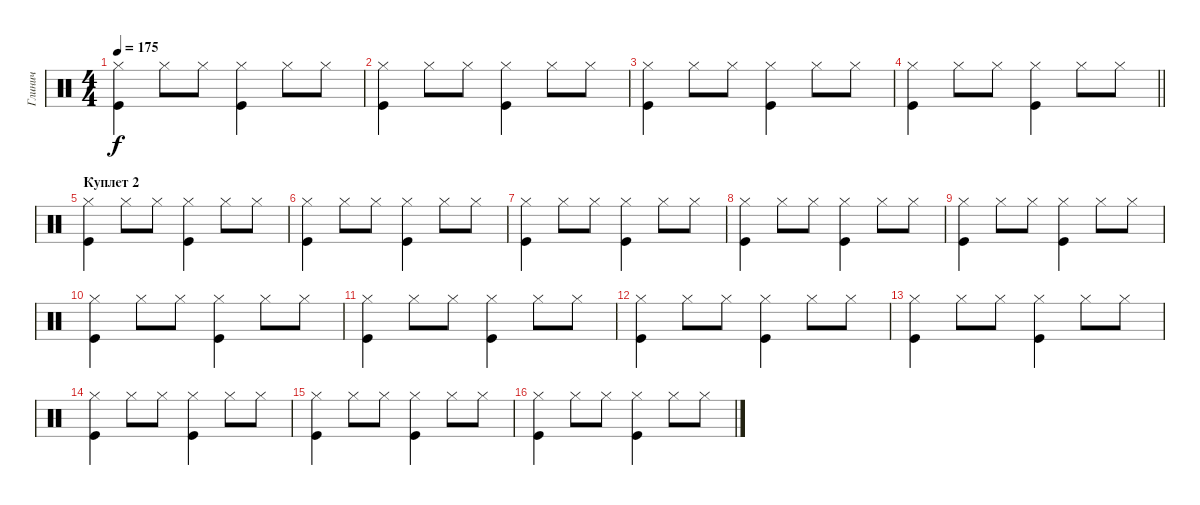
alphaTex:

\track ("Глинич" "Глинич") {instrument percussion}
\staff {score}
\articulation defaults
\ts (4 4)
\tempo 175
\clef neutral
\ks c
("Hi-Hat (closed)" "Kick (hit)").4{dy f} "Hi-Hat (closed)".8 "Hi-Hat (closed)".8 ("Hi-Hat (closed)" "Kick (hit)").4 "Hi-Hat (closed)".8 "Hi-Hat (closed)".8 |
("Hi-Hat (closed)" "Kick (hit)").4 "Hi-Hat (closed)".8 "Hi-Hat (closed)".8 ("Hi-Hat (closed)" "Kick (hit)").4 "Hi-Hat (closed)".8 "Hi-Hat (closed)".8 |
("Hi-Hat (closed)" "Kick (hit)").4 "Hi-Hat (closed)".8 "Hi-Hat (closed)".8 ("Hi-Hat (closed)" "Kick (hit)").4 "Hi-Hat (closed)".8 "Hi-Hat (closed)".8 |
\barLineRight lightlight
("Hi-Hat (closed)" "Kick (hit)").4 "Hi-Hat (closed)".8 "Hi-Hat (closed)".8 ("Hi-Hat (closed)" "Kick (hit)").4 "Hi-Hat (closed)".8 "Hi-Hat (closed)".8 |
\section ("" "Куплет 2")
("Hi-Hat (closed)" "Kick (hit)").4 "Hi-Hat (closed)".8 "Hi-Hat (closed)".8 ("Hi-Hat (closed)" "Kick (hit)").4 "Hi-Hat (closed)".8 "Hi-Hat (closed)".8 |
("Hi-Hat (closed)" "Kick (hit)").4 "Hi-Hat (closed)".8 "Hi-Hat (closed)".8 ("Hi-Hat (closed)" "Kick (hit)").4 "Hi-Hat (closed)".8 "Hi-Hat (closed)".8 |
("Hi-Hat (closed)" "Kick (hit)").4 "Hi-Hat (closed)".8 "Hi-Hat (closed)".8 ("Hi-Hat (closed)" "Kick (hit)").4 "Hi-Hat (closed)".8 "Hi-Hat (closed)".8 |
("Hi-Hat (closed)" "Kick (hit)").4 "Hi-Hat (closed)".8 "Hi-Hat (closed)".8 ("Hi-Hat (closed)" "Kick (hit)").4 "Hi-Hat (closed)".8 "Hi-Hat (closed)".8 |
("Hi-Hat (closed)" "Kick (hit)").4 "Hi-Hat (closed)".8 "Hi-Hat (closed)".8 ("Hi-Hat (closed)" "Kick (hit)").4 "Hi-Hat (closed)".8 "Hi-Hat (closed)".8 |
("Hi-Hat (closed)" "Kick (hit)").4 "Hi-Hat (closed)".8 "Hi-Hat (closed)".8 ("Hi-Hat (closed)" "Kick (hit)").4 "Hi-Hat (closed)".8 "Hi-Hat (closed)".8 |
("Hi-Hat (closed)" "Kick (hit)").4 "Hi-Hat (closed)".8 "Hi-Hat (closed)".8 ("Hi-Hat (closed)" "Kick (hit)").4 "Hi-Hat (closed)".8 "Hi-Hat (closed)".8 |
("Hi-Hat (closed)" "Kick (hit)").4 "Hi-Hat (closed)".8 "Hi-Hat (closed)".8 ("Hi-Hat (closed)" "Kick (hit)").4 "Hi-Hat (closed)".8 "Hi-Hat (closed)".8 |
("Hi-Hat (closed)" "Kick (hit)").4 "Hi-Hat (closed)".8 "Hi-Hat (closed)".8 ("Hi-Hat (closed)" "Kick (hit)").4 "Hi-Hat (closed)".8 "Hi-Hat (closed)".8 |
("Hi-Hat (closed)" "Kick (hit)").4 "Hi-Hat (closed)".8 "Hi-Hat (closed)".8 ("Hi-Hat (closed)" "Kick (hit)").4 "Hi-Hat (closed)".8 "Hi-Hat (closed)".8 |
("Hi-Hat (closed)" "Kick (hit)").4 "Hi-Hat (closed)".8 "Hi-Hat (closed)".8 ("Hi-Hat (closed)" "Kick (hit)").4 "Hi-Hat (closed)".8 "Hi-Hat (closed)".8 |
("Hi-Hat (closed)" "Kick (hit)").4 "Hi-Hat (closed)".8 "Hi-Hat (closed)".8 ("Hi-Hat (closed)" "Kick (hit)").4 "Hi-Hat (closed)".8 "Hi-Hat (closed)".8
